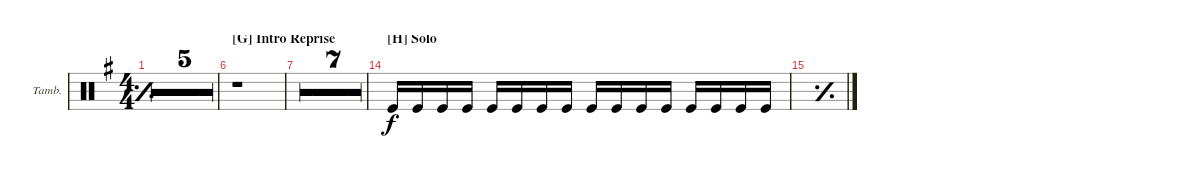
\defaultSystemsLayout 4
\bracketExtendMode groupsimilarinstruments
\firstSystemTrackNameOrientation horizontal
\otherSystemsTrackNameOrientation horizontal
\track ("Tambourine" "Tamb.") {multiBarRest instrument percussion}
\staff {score}
\articulation defaults
\ts (4 4)
\tempo 90
\clef neutral
\simile simple
\scale
0.125828
\ks g
|
\scale
0.347328 |
\scale
0.217557 |
\scale
0.166031 |
\scale
0.268415 |
\section ("G" "Intro Reprise")
\simile none
r.1 |
r.1 |
r.1 |
r.1 |
r.1 |
r.1 |
r.1 |
r.1 |
\section ("H" "Solo")
"Kick (hit)".16 "Kick (hit)".16 "Kick (hit)".16 "Kick (hit)".16 "Kick (hit)".16 "Kick (hit)".16 "Kick (hit)".16 "Kick (hit)".16 "Kick (hit)".16 "Kick (hit)".16 "Kick (hit)".16 "Kick (hit)".16 "Kick (hit)".16 "Kick (hit)".16 "Kick (hit)".16 "Kick (hit)".16 |
\simile simple
